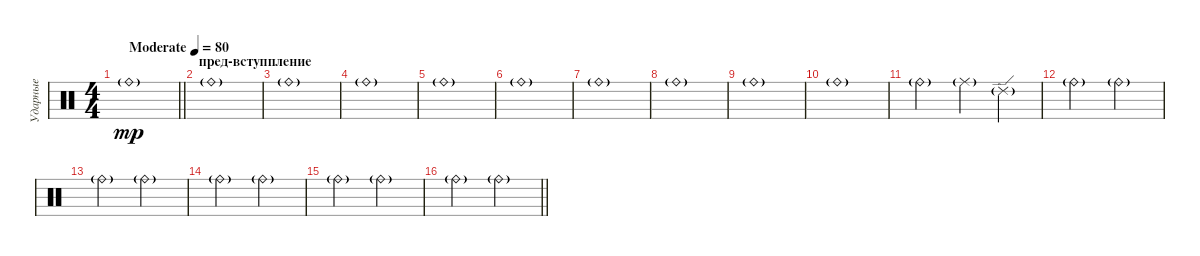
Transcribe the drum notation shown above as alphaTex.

\track ("Ударные" "Ударные") {instrument percussion}
\staff {score}
\articulation defaults
\ts (4 4)
\tempo (80 "Moderate")
\clef neutral
\barLineRight lightlight
\ks c "Ride (bell)"{g}.1{dy mp}
|
\section ("" "пред-вступпление")
"Ride (bell)"{g}.1 |
"Ride (bell)"{g}.1 |
"Ride (bell)"{g}.1 |
"Ride (bell)"{g}.1 |
"Ride (bell)"{g}.1 |
"Ride (bell)"{g}.1 |
"Ride (bell)"{g}.1 |
"Ride (bell)"{g}.1 |
"Ride (bell)"{g}.1 |
"Ride (bell)"{g}.2 "Ride (middle)"{g}.4 "Ride (edge) 2"{g}.4 |
"Ride (bell)"{g}.2 "Ride (bell)"{g}.2 |
"Ride (bell)"{g}.2 "Ride (bell)"{g}.2 |
"Ride (bell)"{g}.2 "Ride (bell)"{g}.2 |
"Ride (bell)"{g}.2 "Ride (bell)"{g}.2 |
\barLineRight lightlight "Ride (bell)"{g}.2 "Ride (bell)"{g}.2
